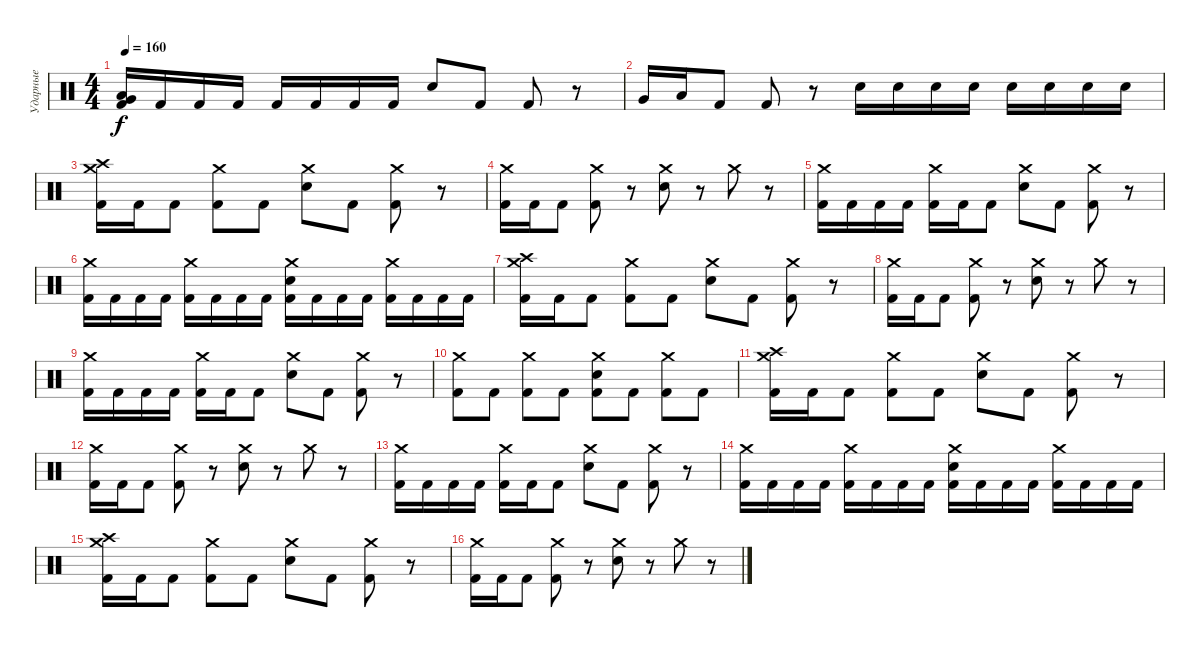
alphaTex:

\track ("Ударные" "Ударные") {instrument percussion}
\staff {score}
\articulation defaults
\ts (4 4)
\tempo 160
\clef neutral
\ks c
("Very Low Tom (hit)" "Low Floor Tom (hit)" "Kick (hit) 2").16{dy f} "Kick (hit) 2".16 "Kick (hit) 2".16 "Kick (hit) 2".16 "Kick (hit) 2".16 "Kick (hit) 2".16 "Kick (hit) 2".16 "Kick (hit) 2".16 "Electric Snare (hit)".8 "Kick (hit) 2".8 "Kick (hit) 2".8 r.8 |
"Very Low Tom (hit)".16 "Low Floor Tom (hit)".16 "Kick (hit) 2".8 "Kick (hit) 2".8 r.8 "Electric Snare (hit)".16 "Electric Snare (hit)".16 "Electric Snare (hit)".16 "Electric Snare (hit)".16 "Electric Snare (hit)".16 "Electric Snare (hit)".16 "Electric Snare (hit)".16 "Electric Snare (hit)".16 |
("Crash medium (hit)" "Crash high (hit)" "Kick (hit) 2").16 "Kick (hit) 2".16 "Kick (hit) 2".8 ("Crash medium (hit)" "Kick (hit) 2").8 "Kick (hit) 2".8 ("Crash medium (hit)" "Electric Snare (hit)").8 "Kick (hit) 2".8 ("Crash medium (hit)" "Kick (hit) 2").8 r.8 |
("Crash medium (hit)" "Kick (hit) 2").16 "Kick (hit) 2".16 "Kick (hit) 2".8 ("Crash medium (hit)" "Kick (hit) 2").8 r.8 ("Crash medium (hit)" "Electric Snare (hit)").8 r.8 "Crash medium (hit)".8 r.8 |
("Crash medium (hit)" "Kick (hit) 2").16 "Kick (hit) 2".16 "Kick (hit) 2".16 "Kick (hit) 2".16 ("Crash medium (hit)" "Kick (hit) 2").16 "Kick (hit) 2".16 "Kick (hit) 2".8 ("Crash medium (hit)" "Electric Snare (hit)").8 "Kick (hit) 2".8 ("Crash medium (hit)" "Kick (hit) 2").8 r.8 |
("Crash medium (hit)" "Kick (hit) 2").16 "Kick (hit) 2".16 "Kick (hit) 2".16 "Kick (hit) 2".16 ("Crash medium (hit)" "Kick (hit) 2").16 "Kick (hit) 2".16 "Kick (hit) 2".16 "Kick (hit) 2".16 ("Crash medium (hit)" "Electric Snare (hit)" "Kick (hit) 2").16 "Kick (hit) 2".16 "Kick (hit) 2".16 "Kick (hit) 2".16 ("Crash medium (hit)" "Kick (hit) 2").16 "Kick (hit) 2".16 "Kick (hit) 2".16 "Kick (hit) 2".16 |
("Crash medium (hit)" "Crash high (hit)" "Kick (hit) 2").16 "Kick (hit) 2".16 "Kick (hit) 2".8 ("Crash medium (hit)" "Kick (hit) 2").8 "Kick (hit) 2".8 ("Crash medium (hit)" "Electric Snare (hit)").8 "Kick (hit) 2".8 ("Crash medium (hit)" "Kick (hit) 2").8 r.8 |
("Crash medium (hit)" "Kick (hit) 2").16 "Kick (hit) 2".16 "Kick (hit) 2".8 ("Crash medium (hit)" "Kick (hit) 2").8 r.8 ("Crash medium (hit)" "Electric Snare (hit)").8 r.8 "Crash medium (hit)".8 r.8 |
("Crash medium (hit)" "Kick (hit) 2").16 "Kick (hit) 2".16 "Kick (hit) 2".16 "Kick (hit) 2".16 ("Crash medium (hit)" "Kick (hit) 2").16 "Kick (hit) 2".16 "Kick (hit) 2".8 ("Crash medium (hit)" "Electric Snare (hit)").8 "Kick (hit) 2".8 ("Crash medium (hit)" "Kick (hit) 2").8 r.8 |
("Crash medium (hit)" "Kick (hit) 2").8 "Kick (hit) 2".8 ("Crash medium (hit)" "Kick (hit) 2").8 "Kick (hit) 2".8 ("Crash medium (hit)" "Electric Snare (hit)" "Kick (hit) 2").8 "Kick (hit) 2".8 ("Crash medium (hit)" "Kick (hit) 2").8 "Kick (hit) 2".8 |
("Crash medium (hit)" "Crash high (hit)" "Kick (hit) 2").16 "Kick (hit) 2".16 "Kick (hit) 2".8 ("Crash medium (hit)" "Kick (hit) 2").8 "Kick (hit) 2".8 ("Crash medium (hit)" "Electric Snare (hit)").8 "Kick (hit) 2".8 ("Crash medium (hit)" "Kick (hit) 2").8 r.8 |
("Crash medium (hit)" "Kick (hit) 2").16 "Kick (hit) 2".16 "Kick (hit) 2".8 ("Crash medium (hit)" "Kick (hit) 2").8 r.8 ("Crash medium (hit)" "Electric Snare (hit)").8 r.8 "Crash medium (hit)".8 r.8 |
("Crash medium (hit)" "Kick (hit) 2").16 "Kick (hit) 2".16 "Kick (hit) 2".16 "Kick (hit) 2".16 ("Crash medium (hit)" "Kick (hit) 2").16 "Kick (hit) 2".16 "Kick (hit) 2".8 ("Crash medium (hit)" "Electric Snare (hit)").8 "Kick (hit) 2".8 ("Crash medium (hit)" "Kick (hit) 2").8 r.8 |
("Crash medium (hit)" "Kick (hit) 2").16 "Kick (hit) 2".16 "Kick (hit) 2".16 "Kick (hit) 2".16 ("Crash medium (hit)" "Kick (hit) 2").16 "Kick (hit) 2".16 "Kick (hit) 2".16 "Kick (hit) 2".16 ("Crash medium (hit)" "Electric Snare (hit)" "Kick (hit) 2").16 "Kick (hit) 2".16 "Kick (hit) 2".16 "Kick (hit) 2".16 ("Crash medium (hit)" "Kick (hit) 2").16 "Kick (hit) 2".16 "Kick (hit) 2".16 "Kick (hit) 2".16 |
("Crash medium (hit)" "Crash high (hit)" "Kick (hit) 2").16 "Kick (hit) 2".16 "Kick (hit) 2".8 ("Crash medium (hit)" "Kick (hit) 2").8 "Kick (hit) 2".8 ("Crash medium (hit)" "Electric Snare (hit)").8 "Kick (hit) 2".8 ("Crash medium (hit)" "Kick (hit) 2").8 r.8 |
("Crash medium (hit)" "Kick (hit) 2").16 "Kick (hit) 2".16 "Kick (hit) 2".8 ("Crash medium (hit)" "Kick (hit) 2").8 r.8 ("Crash medium (hit)" "Electric Snare (hit)").8 r.8 "Crash medium (hit)".8 r.8
